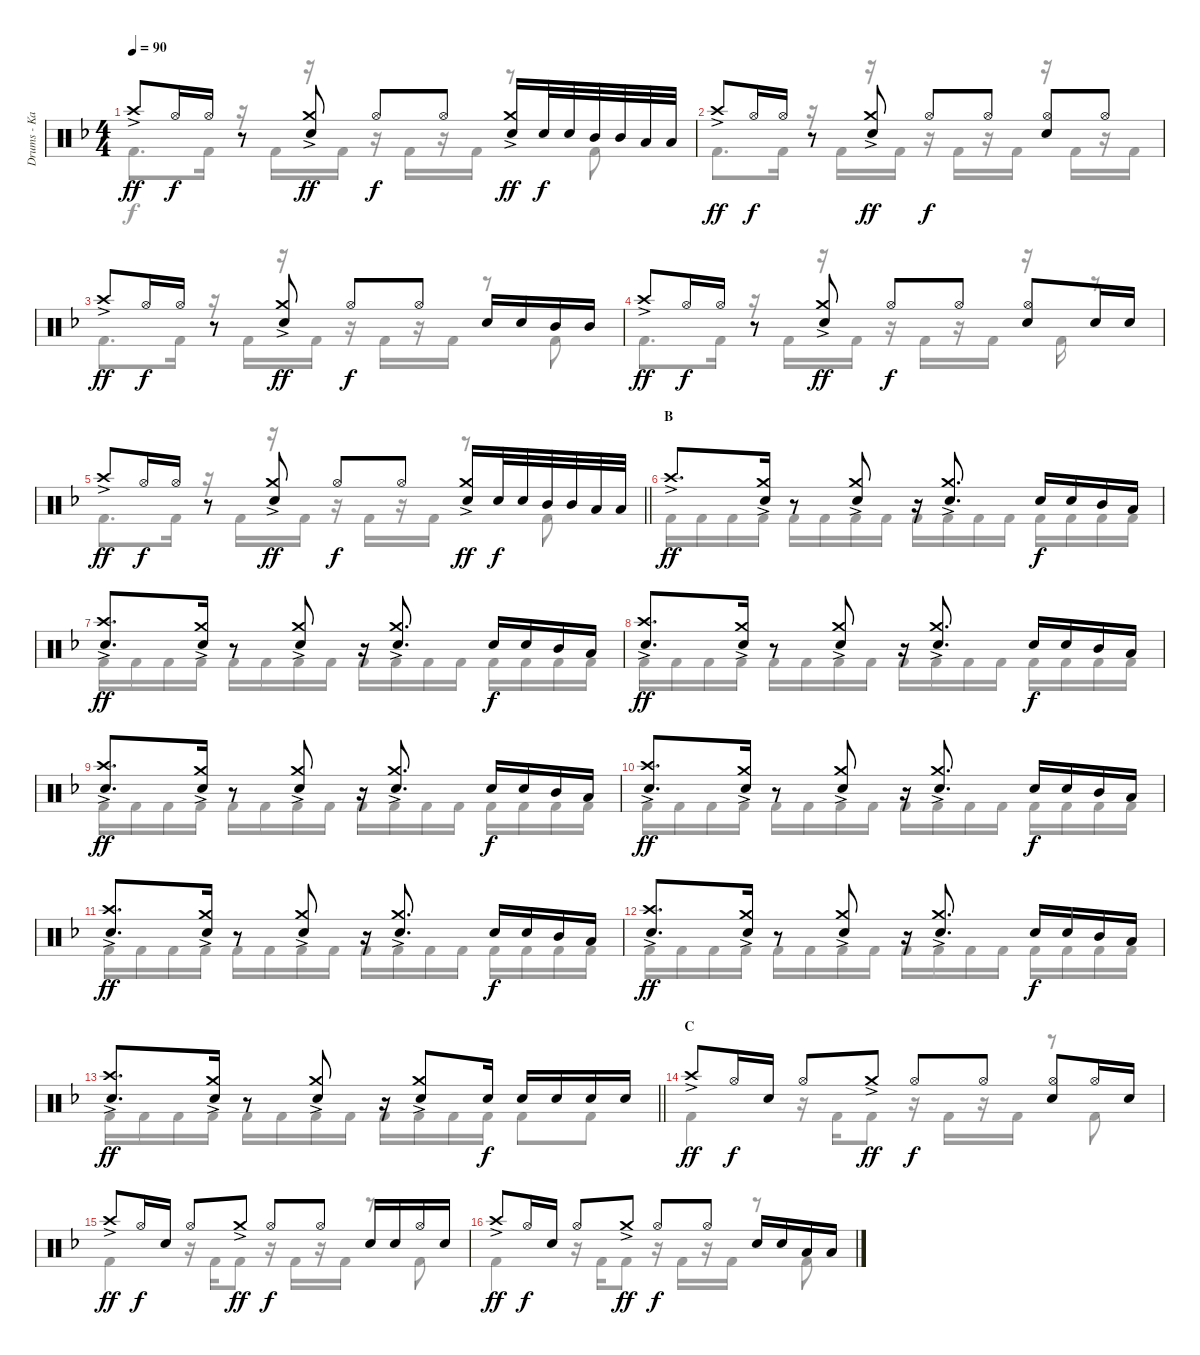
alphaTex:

\track ("Drums - Kai" "Drums - Ka") {instrument percussion}
\staff {score}
\articulation defaults
\voice
\ts (4 4)
\tempo 90
\clef neutral
\ks f "Crash high (hit)"{ac}.8{dy ff} "Hi-Hat (open)".16{dy f} "Hi-Hat (open)".16
r.8 ("Crash medium (hit)"{ac} "Snare (hit) 2").8{dy ff} "Hi-Hat (open)".8{dy f} "Hi-Hat (open)".8 ("Crash medium (hit)"{ac} "Snare (hit) 2").16{dy ff} "Snare (hit) 2".32{dy f} "Snare (hit) 2".32 "Mid Tom (hit)".32 "Mid Tom (hit)".32 "Low Tom (hit)".32 "Low Tom (hit)".32 |
"Crash high (hit)"{ac}.8{dy ff} "Hi-Hat (open)".16{dy f} "Hi-Hat (open)".16 r.8 ("Crash medium (hit)"{ac} "Snare (hit) 2").8{dy ff} "Hi-Hat (open)".8{dy f} "Hi-Hat (open)".8 ("Hi-Hat (open)" "Snare (hit) 2").8 "Hi-Hat (open)".8 |
"Crash high (hit)"{ac}.8{dy ff} "Hi-Hat (open)".16{dy f} "Hi-Hat (open)".16 r.8 ("Crash medium (hit)"{ac} "Snare (hit) 2").8{dy ff} "Hi-Hat (open)".8{dy f} "Hi-Hat (open)".8 "Snare (hit) 2".16 "Snare (hit) 2".16 "Mid Tom (hit)".16 "Mid Tom (hit)".16 |
"Crash high (hit)"{ac}.8{dy ff} "Hi-Hat (open)".16{dy f} "Hi-Hat (open)".16 r.8 ("Crash medium (hit)"{ac} "Snare (hit) 2").8{dy ff} "Hi-Hat (open)".8{dy f} "Hi-Hat (open)".8 ("Hi-Hat (open)" "Snare (hit) 2").8 "Snare (hit) 2".16 "Snare (hit) 2".16 |
\barLineRight lightlight "Crash high (hit)"{ac}.8{dy ff} "Hi-Hat (open)".16{dy f} "Hi-Hat (open)".16
r.8 ("Crash medium (hit)"{ac} "Snare (hit) 2").8{dy ff} "Hi-Hat (open)".8{dy f} "Hi-Hat (open)".8 ("Crash medium (hit)"{ac} "Snare (hit) 2").16{dy ff} "Snare (hit) 2".32{dy f} "Snare (hit) 2".32 "Mid Tom (hit)".32 "Mid Tom (hit)".32 "Low Tom (hit)".32 "Low Tom (hit)".32 |
\section ("" "B")
"Crash high (hit)"{ac}.8{d dy ff} ("Crash medium (hit)"{ac} "Snare (hit) 2").16 r.8 ("Crash medium (hit)"{ac} "Snare (hit) 2").8 r.16 ("Crash medium (hit)"{ac} "Snare (hit) 2").8{d} "Snare (hit) 2".16{dy f} "Snare (hit) 2".16 "Mid Tom (hit)".16 "Low Tom (hit)".16 |
("Crash high (hit)"{ac} "Snare (hit) 2").8{d dy ff} ("Crash medium (hit)"{ac} "Snare (hit) 2").16 r.8 ("Crash medium (hit)"{ac} "Snare (hit) 2").8 r.16 ("Crash medium (hit)"{ac} "Snare (hit) 2").8{d} "Snare (hit) 2".16{dy f} "Snare (hit) 2".16 "Mid Tom (hit)".16 "Low Tom (hit)".16 |
("Crash high (hit)"{ac} "Snare (hit) 2").8{d dy ff} ("Crash medium (hit)"{ac} "Snare (hit) 2").16 r.8 ("Crash medium (hit)"{ac} "Snare (hit) 2").8 r.16 ("Crash medium (hit)"{ac} "Snare (hit) 2").8{d} "Snare (hit) 2".16{dy f} "Snare (hit) 2".16 "Mid Tom (hit)".16 "Low Tom (hit)".16 |
("Crash high (hit)"{ac} "Snare (hit) 2").8{d dy ff} ("Crash medium (hit)"{ac} "Snare (hit) 2").16 r.8 ("Crash medium (hit)"{ac} "Snare (hit) 2").8 r.16 ("Crash medium (hit)"{ac} "Snare (hit) 2").8{d} "Snare (hit) 2".16{dy f} "Snare (hit) 2".16 "Mid Tom (hit)".16 "Low Tom (hit)".16 |
("Crash high (hit)"{ac} "Snare (hit) 2").8{d dy ff} ("Crash medium (hit)"{ac} "Snare (hit) 2").16 r.8 ("Crash medium (hit)"{ac} "Snare (hit) 2").8 r.16 ("Crash medium (hit)"{ac} "Snare (hit) 2").8{d} "Snare (hit) 2".16{dy f} "Snare (hit) 2".16 "Mid Tom (hit)".16 "Low Tom (hit)".16 |
("Crash high (hit)"{ac} "Snare (hit) 2").8{d dy ff} ("Crash medium (hit)"{ac} "Snare (hit) 2").16 r.8 ("Crash medium (hit)"{ac} "Snare (hit) 2").8 r.16 ("Crash medium (hit)"{ac} "Snare (hit) 2").8{d} "Snare (hit) 2".16{dy f} "Snare (hit) 2".16 "Mid Tom (hit)".16 "Low Tom (hit)".16 |
("Crash high (hit)"{ac} "Snare (hit) 2").8{d dy ff} ("Crash medium (hit)"{ac} "Snare (hit) 2").16 r.8 ("Crash medium (hit)"{ac} "Snare (hit) 2").8 r.16 ("Crash medium (hit)"{ac} "Snare (hit) 2").8{d} "Snare (hit) 2".16{dy f} "Snare (hit) 2".16 "Mid Tom (hit)".16 "Low Tom (hit)".16 |
\barLineRight lightlight
("Crash high (hit)"{ac} "Snare (hit) 2").8{d dy ff} ("Crash medium (hit)"{ac} "Snare (hit) 2").16 r.8 ("Crash medium (hit)"{ac} "Snare (hit) 2").8 r.16 ("Crash medium (hit)"{ac} "Snare (hit) 2").8 "Snare (hit) 2".16{dy f} "Snare (hit) 2".16 "Snare (hit) 2".16 "Snare (hit) 2".16 "Snare (hit) 2".16 |
\section ("" "C")
"Crash high (hit)"{ac}.8{dy ff} "Hi-Hat (open)".16{dy f} "Snare (hit) 2".16 "Hi-Hat (open)".8 "Crash medium (hit)"{ac}.8{dy ff} "Hi-Hat (open)".8{dy f} "Hi-Hat (open)".8 ("Hi-Hat (open)" "Snare (hit) 2").8 "Hi-Hat (open)".16 "Snare (hit) 2".16 |
"Crash high (hit)"{ac}.8{dy ff} "Hi-Hat (open)".16{dy f} "Snare (hit) 2".16 "Hi-Hat (open)".8 "Crash medium (hit)"{ac}.8{dy ff} "Hi-Hat (open)".8{dy f} "Hi-Hat (open)".8 "Snare (hit) 2".16 "Snare (hit) 2".16 "Hi-Hat (open)".16 "Snare (hit) 2".16 |
"Crash high (hit)"{ac}.8{dy ff} "Hi-Hat (open)".16{dy f} "Snare (hit) 2".16 "Hi-Hat (open)".8 "Crash medium (hit)"{ac}.8{dy ff} "Hi-Hat (open)".8{dy f} "Hi-Hat (open)".8 "Snare (hit) 2".16 "Snare (hit) 2".16 "Low Tom (hit)".16 "Low Tom (hit)".16
\voice
\clef neutral
\ottava regular
\simile none
\ks f "Kick (hit) 2".8{d dy f} "Kick (hit) 2".16
r.16 "Kick (hit) 2".16 r.16 "Kick (hit) 2".16 r.16 "Kick (hit) 2".16 r.16 "Kick (hit) 2".16 r.8 "Kick (hit) 2".8 |
"Kick (hit) 2".8{d} "Kick (hit) 2".16 r.16 "Kick (hit) 2".16 r.16 "Kick (hit) 2".16 r.16 "Kick (hit) 2".16 r.16 "Kick (hit) 2".16 r.16 "Kick (hit) 2".16 r.16 "Kick (hit) 2".16 |
"Kick (hit) 2".8{d} "Kick (hit) 2".16 r.16 "Kick (hit) 2".16 r.16 "Kick (hit) 2".16 r.16 "Kick (hit) 2".16 r.16 "Kick (hit) 2".16 r.8 "Kick (hit) 2".8 |
"Kick (hit) 2".8{d} "Kick (hit) 2".16 r.16 "Kick (hit) 2".16 r.16 "Kick (hit) 2".16 r.16 "Kick (hit) 2".16 r.16 "Kick (hit) 2".16 r.16 "Kick (hit) 2".16 r.8 |
\barLineRight lightlight "Kick (hit) 2".8{d} "Kick (hit) 2".16
r.16 "Kick (hit) 2".16 r.16 "Kick (hit) 2".16 r.16 "Kick (hit) 2".16 r.16 "Kick (hit) 2".16 r.8 "Kick (hit) 2".8 |
"Kick (hit) 2".16 "Kick (hit) 2".16 "Kick (hit) 2".16 "Kick (hit) 2".16 "Kick (hit) 2".16 "Kick (hit) 2".16 "Kick (hit) 2".16 "Kick (hit) 2".16 "Kick (hit) 2".16 "Kick (hit) 2".16 "Kick (hit) 2".16 "Kick (hit) 2".16 "Kick (hit) 2".16 "Kick (hit) 2".16 "Kick (hit) 2".16 "Kick (hit) 2".16 |
"Kick (hit) 2".16 "Kick (hit) 2".16 "Kick (hit) 2".16 "Kick (hit) 2".16 "Kick (hit) 2".16 "Kick (hit) 2".16 "Kick (hit) 2".16 "Kick (hit) 2".16 "Kick (hit) 2".16 "Kick (hit) 2".16 "Kick (hit) 2".16 "Kick (hit) 2".16 "Kick (hit) 2".16 "Kick (hit) 2".16 "Kick (hit) 2".16 "Kick (hit) 2".16 |
"Kick (hit) 2".16 "Kick (hit) 2".16 "Kick (hit) 2".16 "Kick (hit) 2".16 "Kick (hit) 2".16 "Kick (hit) 2".16 "Kick (hit) 2".16 "Kick (hit) 2".16 "Kick (hit) 2".16 "Kick (hit) 2".16 "Kick (hit) 2".16 "Kick (hit) 2".16 "Kick (hit) 2".16 "Kick (hit) 2".16 "Kick (hit) 2".16 "Kick (hit) 2".16 |
"Kick (hit) 2".16 "Kick (hit) 2".16 "Kick (hit) 2".16 "Kick (hit) 2".16 "Kick (hit) 2".16 "Kick (hit) 2".16 "Kick (hit) 2".16 "Kick (hit) 2".16 "Kick (hit) 2".16 "Kick (hit) 2".16 "Kick (hit) 2".16 "Kick (hit) 2".16 "Kick (hit) 2".16 "Kick (hit) 2".16 "Kick (hit) 2".16 "Kick (hit) 2".16 |
"Kick (hit) 2".16 "Kick (hit) 2".16 "Kick (hit) 2".16 "Kick (hit) 2".16 "Kick (hit) 2".16 "Kick (hit) 2".16 "Kick (hit) 2".16 "Kick (hit) 2".16 "Kick (hit) 2".16 "Kick (hit) 2".16 "Kick (hit) 2".16 "Kick (hit) 2".16 "Kick (hit) 2".16 "Kick (hit) 2".16 "Kick (hit) 2".16 "Kick (hit) 2".16 |
"Kick (hit) 2".16 "Kick (hit) 2".16 "Kick (hit) 2".16 "Kick (hit) 2".16 "Kick (hit) 2".16 "Kick (hit) 2".16 "Kick (hit) 2".16 "Kick (hit) 2".16 "Kick (hit) 2".16 "Kick (hit) 2".16 "Kick (hit) 2".16 "Kick (hit) 2".16 "Kick (hit) 2".16 "Kick (hit) 2".16 "Kick (hit) 2".16 "Kick (hit) 2".16 |
"Kick (hit) 2".16 "Kick (hit) 2".16 "Kick (hit) 2".16 "Kick (hit) 2".16 "Kick (hit) 2".16 "Kick (hit) 2".16 "Kick (hit) 2".16 "Kick (hit) 2".16 "Kick (hit) 2".16 "Kick (hit) 2".16 "Kick (hit) 2".16 "Kick (hit) 2".16 "Kick (hit) 2".16 "Kick (hit) 2".16 "Kick (hit) 2".16 "Kick (hit) 2".16 |
\barLineRight lightlight "Kick (hit) 2".16 "Kick (hit) 2".16 "Kick (hit) 2".16 "Kick (hit) 2".16 "Kick (hit) 2".16 "Kick (hit) 2".16 "Kick (hit) 2".16 "Kick (hit) 2".16 "Kick (hit) 2".16 "Kick (hit) 2".16 "Kick (hit) 2".16 "Kick (hit) 2".16 "Kick (hit) 2".8 "Kick (hit) 2".8
|
"Kick (hit) 2".4 r.16 "Kick (hit) 2".16 "Kick (hit) 2".8 r.16 "Kick (hit) 2".16 r.16 "Kick (hit) 2".16 r.8 "Kick (hit) 2".8 |
"Kick (hit) 2".4 r.16 "Kick (hit) 2".16 "Kick (hit) 2".8 r.16 "Kick (hit) 2".16 r.16 "Kick (hit) 2".16 r.8 "Kick (hit) 2".8 |
"Kick (hit) 2".4 r.16 "Kick (hit) 2".16 "Kick (hit) 2".8 r.16 "Kick (hit) 2".16 r.16 "Kick (hit) 2".16 r.8 "Kick (hit) 2".8
